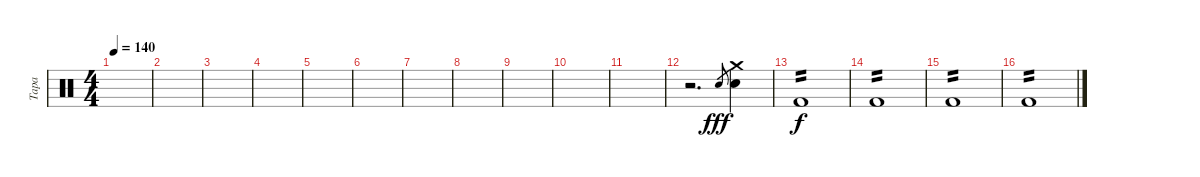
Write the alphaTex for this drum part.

\track ("Tapa" "Tapa") {instrument percussion}
\staff {score}
\articulation defaults
\ts (4 4)
\tempo 140
\clef neutral
\ks c
|
|
|
|
|
|
|
|
|
|
|
r.2{d} "Snare (hit) 2".8{gr dy fff} ("Snare (hit) 2" "Crash medium (hit)").4 |
"Kick (hit) 2".1{tp 2 dy f} |
"Kick (hit) 2".1{tp 2} |
"Kick (hit) 2".1{tp 2} |
"Kick (hit) 2".1{tp 2}
